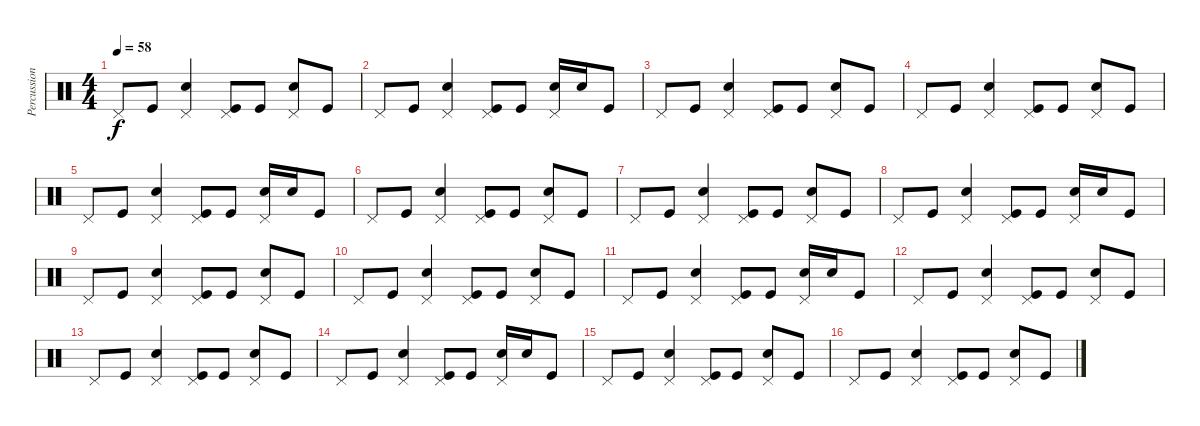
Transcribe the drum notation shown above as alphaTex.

\track ("Percussion" "Percussion") {instrument percussion}
\staff {score}
\articulation defaults
\ts (4 4)
\tempo 58
\clef neutral
\ks c "Pedal Hi-Hat (hit)".8{dy f} "Kick (hit)".8
("Pedal Hi-Hat (hit)" "Electric Snare (hit)").4 ("Pedal Hi-Hat (hit)" "Kick (hit)").8 "Kick (hit)".8 ("Pedal Hi-Hat (hit)" "Electric Snare (hit)").8 "Kick (hit)".8 |
"Pedal Hi-Hat (hit)".8 "Kick (hit)".8 ("Pedal Hi-Hat (hit)" "Electric Snare (hit)").4 ("Pedal Hi-Hat (hit)" "Kick (hit)").8 "Kick (hit)".8 ("Pedal Hi-Hat (hit)" "Electric Snare (hit)").16 "Electric Snare (hit)".16 "Kick (hit)".8 |
"Pedal Hi-Hat (hit)".8 "Kick (hit)".8 ("Pedal Hi-Hat (hit)" "Electric Snare (hit)").4 ("Pedal Hi-Hat (hit)" "Kick (hit)").8 "Kick (hit)".8 ("Pedal Hi-Hat (hit)" "Electric Snare (hit)").8 "Kick (hit)".8 |
"Pedal Hi-Hat (hit)".8 "Kick (hit)".8 ("Pedal Hi-Hat (hit)" "Electric Snare (hit)").4 ("Pedal Hi-Hat (hit)" "Kick (hit)").8 "Kick (hit)".8 ("Pedal Hi-Hat (hit)" "Electric Snare (hit)").8 "Kick (hit)".8 |
"Pedal Hi-Hat (hit)".8 "Kick (hit)".8 ("Pedal Hi-Hat (hit)" "Electric Snare (hit)").4 ("Pedal Hi-Hat (hit)" "Kick (hit)").8 "Kick (hit)".8 ("Pedal Hi-Hat (hit)" "Electric Snare (hit)").16 "Electric Snare (hit)".16 "Kick (hit)".8 |
"Pedal Hi-Hat (hit)".8 "Kick (hit)".8 ("Pedal Hi-Hat (hit)" "Electric Snare (hit)").4 ("Pedal Hi-Hat (hit)" "Kick (hit)").8 "Kick (hit)".8 ("Pedal Hi-Hat (hit)" "Electric Snare (hit)").8 "Kick (hit)".8 |
"Pedal Hi-Hat (hit)".8 "Kick (hit)".8 ("Pedal Hi-Hat (hit)" "Electric Snare (hit)").4 ("Pedal Hi-Hat (hit)" "Kick (hit)").8 "Kick (hit)".8 ("Pedal Hi-Hat (hit)" "Electric Snare (hit)").8 "Kick (hit)".8 |
"Pedal Hi-Hat (hit)".8 "Kick (hit)".8 ("Pedal Hi-Hat (hit)" "Electric Snare (hit)").4 ("Pedal Hi-Hat (hit)" "Kick (hit)").8 "Kick (hit)".8 ("Pedal Hi-Hat (hit)" "Electric Snare (hit)").16 "Electric Snare (hit)".16 "Kick (hit)".8 |
"Pedal Hi-Hat (hit)".8 "Kick (hit)".8 ("Pedal Hi-Hat (hit)" "Electric Snare (hit)").4 ("Pedal Hi-Hat (hit)" "Kick (hit)").8 "Kick (hit)".8 ("Pedal Hi-Hat (hit)" "Electric Snare (hit)").8 "Kick (hit)".8 |
"Pedal Hi-Hat (hit)".8 "Kick (hit)".8 ("Pedal Hi-Hat (hit)" "Electric Snare (hit)").4 ("Pedal Hi-Hat (hit)" "Kick (hit)").8 "Kick (hit)".8 ("Pedal Hi-Hat (hit)" "Electric Snare (hit)").8 "Kick (hit)".8 |
"Pedal Hi-Hat (hit)".8 "Kick (hit)".8 ("Pedal Hi-Hat (hit)" "Electric Snare (hit)").4 ("Pedal Hi-Hat (hit)" "Kick (hit)").8 "Kick (hit)".8 ("Pedal Hi-Hat (hit)" "Electric Snare (hit)").16 "Electric Snare (hit)".16 "Kick (hit)".8 |
"Pedal Hi-Hat (hit)".8 "Kick (hit)".8 ("Pedal Hi-Hat (hit)" "Electric Snare (hit)").4 ("Pedal Hi-Hat (hit)" "Kick (hit)").8 "Kick (hit)".8 ("Pedal Hi-Hat (hit)" "Electric Snare (hit)").8 "Kick (hit)".8 |
"Pedal Hi-Hat (hit)".8 "Kick (hit)".8 ("Pedal Hi-Hat (hit)" "Electric Snare (hit)").4 ("Pedal Hi-Hat (hit)" "Kick (hit)").8 "Kick (hit)".8 ("Pedal Hi-Hat (hit)" "Electric Snare (hit)").8 "Kick (hit)".8 |
"Pedal Hi-Hat (hit)".8 "Kick (hit)".8 ("Pedal Hi-Hat (hit)" "Electric Snare (hit)").4 ("Pedal Hi-Hat (hit)" "Kick (hit)").8 "Kick (hit)".8 ("Pedal Hi-Hat (hit)" "Electric Snare (hit)").16 "Electric Snare (hit)".16 "Kick (hit)".8 |
"Pedal Hi-Hat (hit)".8 "Kick (hit)".8 ("Pedal Hi-Hat (hit)" "Electric Snare (hit)").4 ("Pedal Hi-Hat (hit)" "Kick (hit)").8 "Kick (hit)".8 ("Pedal Hi-Hat (hit)" "Electric Snare (hit)").8 "Kick (hit)".8 |
"Pedal Hi-Hat (hit)".8 "Kick (hit)".8 ("Pedal Hi-Hat (hit)" "Electric Snare (hit)").4 ("Pedal Hi-Hat (hit)" "Kick (hit)").8 "Kick (hit)".8 ("Pedal Hi-Hat (hit)" "Electric Snare (hit)").8 "Kick (hit)".8
